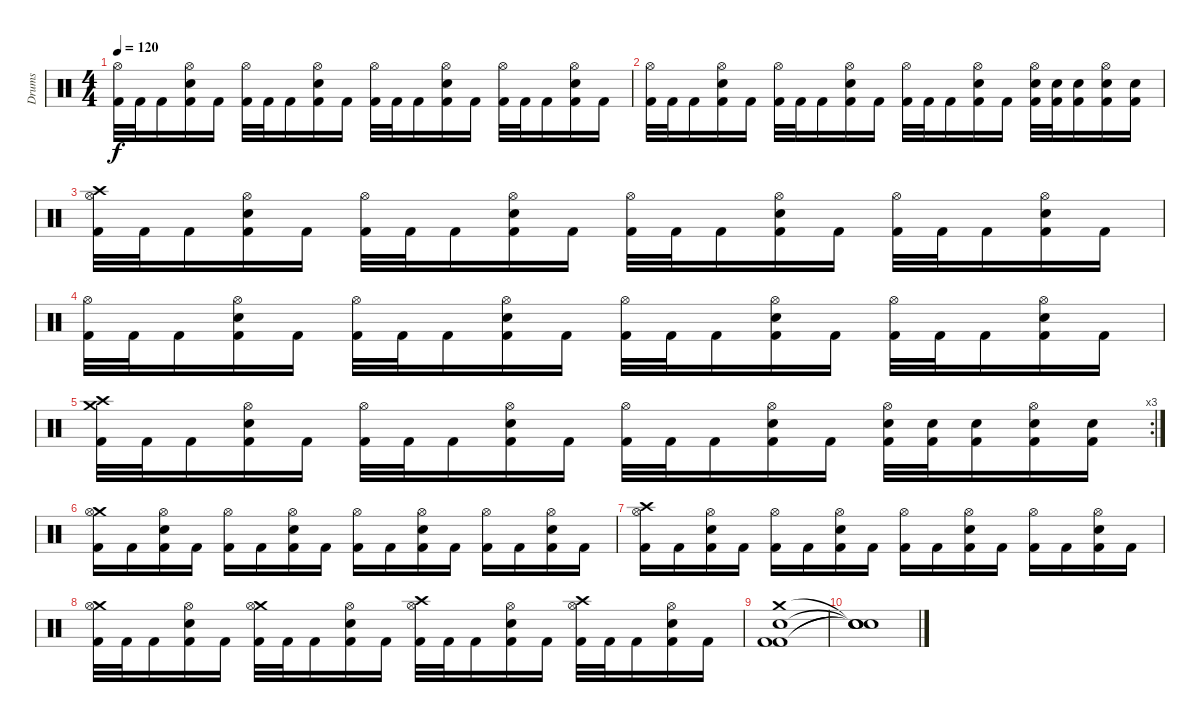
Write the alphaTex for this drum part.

\track ("Drums" "Drums") {instrument percussion}
\staff {score}
\articulation defaults
\ts (4 4)
\tempo 120
\clef neutral
\ks c
("Hi-Hat (open)" "Kick (hit) 2").32{dy f} "Kick (hit) 2".32 "Kick (hit) 2".16 ("Hi-Hat (open)" "Electric Snare (hit)" "Kick (hit) 2").16 "Kick (hit) 2".16 ("Hi-Hat (open)" "Kick (hit) 2").32 "Kick (hit) 2".32 "Kick (hit) 2".16 ("Hi-Hat (open)" "Electric Snare (hit)" "Kick (hit) 2").16 "Kick (hit) 2".16 ("Hi-Hat (open)" "Kick (hit) 2").32 "Kick (hit) 2".32 "Kick (hit) 2".16 ("Hi-Hat (open)" "Electric Snare (hit)" "Kick (hit) 2").16 "Kick (hit) 2".16 ("Hi-Hat (open)" "Kick (hit) 2").32 "Kick (hit) 2".32 "Kick (hit) 2".16 ("Hi-Hat (open)" "Electric Snare (hit)" "Kick (hit) 2").16 "Kick (hit) 2".16 |
("Hi-Hat (open)" "Kick (hit) 2").32 "Kick (hit) 2".32 "Kick (hit) 2".16 ("Hi-Hat (open)" "Electric Snare (hit)" "Kick (hit) 2").16 "Kick (hit) 2".16 ("Hi-Hat (open)" "Kick (hit) 2").32 "Kick (hit) 2".32 "Kick (hit) 2".16 ("Hi-Hat (open)" "Electric Snare (hit)" "Kick (hit) 2").16 "Kick (hit) 2".16 ("Hi-Hat (open)" "Kick (hit) 2").32 "Kick (hit) 2".32 "Kick (hit) 2".16 ("Hi-Hat (open)" "Electric Snare (hit)" "Kick (hit) 2").16 "Kick (hit) 2".16 ("Hi-Hat (open)" "Electric Snare (hit)" "Kick (hit) 2").32 ("Electric Snare (hit)" "Kick (hit) 2").32 ("Electric Snare (hit)" "Kick (hit) 2").16 ("Hi-Hat (open)" "Electric Snare (hit)" "Kick (hit) 2").16 ("Electric Snare (hit)" "Kick (hit) 2").16 |
("Crash high (hit)" "Hi-Hat (open)" "Kick (hit) 2").32 "Kick (hit) 2".32 "Kick (hit) 2".16 ("Hi-Hat (open)" "Electric Snare (hit)" "Kick (hit) 2").16 "Kick (hit) 2".16 ("Hi-Hat (open)" "Kick (hit) 2").32 "Kick (hit) 2".32 "Kick (hit) 2".16 ("Hi-Hat (open)" "Electric Snare (hit)" "Kick (hit) 2").16 "Kick (hit) 2".16 ("Hi-Hat (open)" "Kick (hit) 2").32 "Kick (hit) 2".32 "Kick (hit) 2".16 ("Hi-Hat (open)" "Electric Snare (hit)" "Kick (hit) 2").16 "Kick (hit) 2".16 ("Hi-Hat (open)" "Kick (hit) 2").32 "Kick (hit) 2".32 "Kick (hit) 2".16 ("Hi-Hat (open)" "Electric Snare (hit)" "Kick (hit) 2").16 "Kick (hit) 2".16 |
("Hi-Hat (open)" "Kick (hit) 2").32 "Kick (hit) 2".32 "Kick (hit) 2".16 ("Hi-Hat (open)" "Electric Snare (hit)" "Kick (hit) 2").16 "Kick (hit) 2".16 ("Hi-Hat (open)" "Kick (hit) 2").32 "Kick (hit) 2".32 "Kick (hit) 2".16 ("Hi-Hat (open)" "Electric Snare (hit)" "Kick (hit) 2").16 "Kick (hit) 2".16 ("Hi-Hat (open)" "Kick (hit) 2").32 "Kick (hit) 2".32 "Kick (hit) 2".16 ("Hi-Hat (open)" "Electric Snare (hit)" "Kick (hit) 2").16 "Kick (hit) 2".16 ("Hi-Hat (open)" "Kick (hit) 2").32 "Kick (hit) 2".32 "Kick (hit) 2".16 ("Hi-Hat (open)" "Electric Snare (hit)" "Kick (hit) 2").16 "Kick (hit) 2".16 |
\rc 3
("Crash high (hit)" "Crash medium (hit)" "Kick (hit) 2").32 "Kick (hit) 2".32 "Kick (hit) 2".16 ("Hi-Hat (open)" "Electric Snare (hit)" "Kick (hit) 2").16 "Kick (hit) 2".16 ("Hi-Hat (open)" "Kick (hit) 2").32 "Kick (hit) 2".32 "Kick (hit) 2".16 ("Hi-Hat (open)" "Electric Snare (hit)" "Kick (hit) 2").16 "Kick (hit) 2".16 ("Hi-Hat (open)" "Kick (hit) 2").32 "Kick (hit) 2".32 "Kick (hit) 2".16 ("Hi-Hat (open)" "Electric Snare (hit)" "Kick (hit) 2").16 "Kick (hit) 2".16 ("Hi-Hat (open)" "Electric Snare (hit)" "Kick (hit) 2").32 ("Electric Snare (hit)" "Kick (hit) 2").32 ("Electric Snare (hit)" "Kick (hit) 2").16 ("Hi-Hat (open)" "Electric Snare (hit)" "Kick (hit) 2").16 ("Electric Snare (hit)" "Kick (hit) 2").16 |
("Crash medium (hit)" "Hi-Hat (open)" "Kick (hit) 2").16 "Kick (hit) 2".16 ("Hi-Hat (open)" "Electric Snare (hit)" "Kick (hit) 2").16 "Kick (hit) 2".16 ("Hi-Hat (open)" "Kick (hit) 2").16 "Kick (hit) 2".16 ("Hi-Hat (open)" "Electric Snare (hit)" "Kick (hit) 2").16 "Kick (hit) 2".16 ("Hi-Hat (open)" "Kick (hit) 2").16 "Kick (hit) 2".16 ("Hi-Hat (open)" "Electric Snare (hit)" "Kick (hit) 2").16 "Kick (hit) 2".16 ("Hi-Hat (open)" "Kick (hit) 2").16 "Kick (hit) 2".16 ("Hi-Hat (open)" "Electric Snare (hit)" "Kick (hit) 2").16 "Kick (hit) 2".16 |
("Crash high (hit)" "Hi-Hat (open)" "Kick (hit) 2").16 "Kick (hit) 2".16 ("Hi-Hat (open)" "Electric Snare (hit)" "Kick (hit) 2").16 "Kick (hit) 2".16 ("Hi-Hat (open)" "Kick (hit) 2").16 "Kick (hit) 2".16 ("Hi-Hat (open)" "Electric Snare (hit)" "Kick (hit) 2").16 "Kick (hit) 2".16 ("Hi-Hat (open)" "Kick (hit) 2").16 "Kick (hit) 2".16 ("Hi-Hat (open)" "Electric Snare (hit)" "Kick (hit) 2").16 "Kick (hit) 2".16 ("Hi-Hat (open)" "Kick (hit) 2").16 "Kick (hit) 2".16 ("Hi-Hat (open)" "Electric Snare (hit)" "Kick (hit) 2").16 "Kick (hit) 2".16 |
("Crash medium (hit)" "Hi-Hat (open)" "Kick (hit) 2").32 "Kick (hit) 2".32 "Kick (hit) 2".16 ("Hi-Hat (open)" "Electric Snare (hit)" "Kick (hit) 2").16 "Kick (hit) 2".16 ("Crash medium (hit)" "Hi-Hat (open)" "Kick (hit) 2").32 "Kick (hit) 2".32 "Kick (hit) 2".16 ("Hi-Hat (open)" "Electric Snare (hit)" "Kick (hit) 2").16 "Kick (hit) 2".16 ("Crash high (hit)" "Hi-Hat (open)" "Kick (hit) 2").32 "Kick (hit) 2".32 "Kick (hit) 2".16 ("Hi-Hat (open)" "Electric Snare (hit)" "Kick (hit) 2").16 "Kick (hit) 2".16 ("Crash high (hit)" "Hi-Hat (open)" "Kick (hit) 2").32 "Kick (hit) 2".32 "Kick (hit) 2".16 ("Hi-Hat (open)" "Electric Snare (hit)" "Kick (hit) 2").16 "Kick (hit) 2".16 |
("Crash medium (hit)" "Electric Snare (hit)" "Kick (hit) 2" "Kick (hit) 2").1 |
("Snare (hit)"{t} "Snare (hit)"{t} "Snare (hit)"{t} "Snare (hit)"{t}).1
